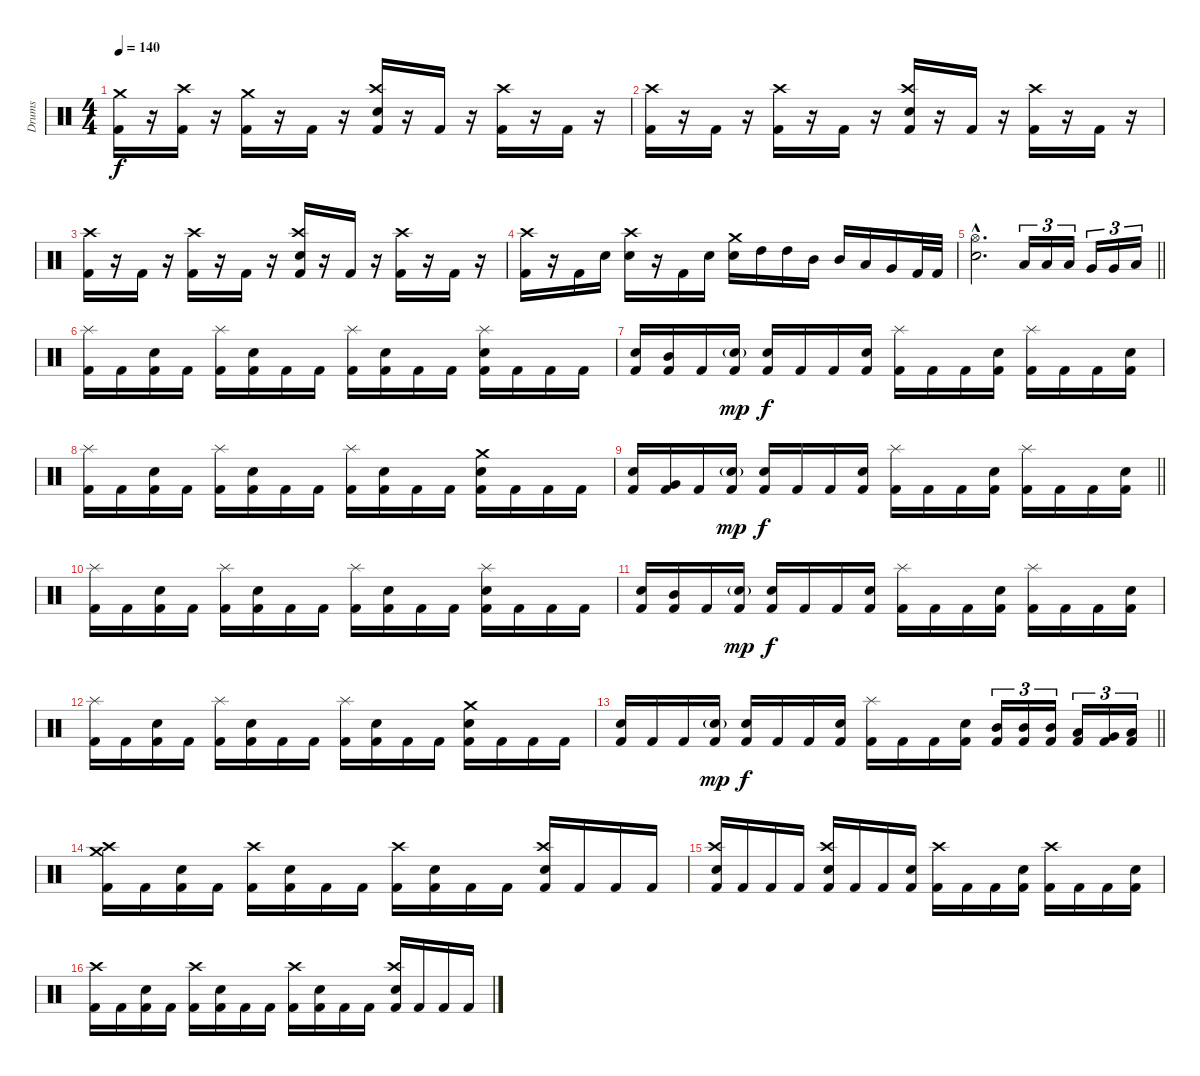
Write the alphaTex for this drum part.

\track ("Drums" "Drums") {instrument percussion}
\staff {score}
\articulation defaults
\ts (4 4)
\tempo 140
\clef neutral
\ks c
("Crash medium (hit)" "Kick (hit) 2").16{dy f} r.16 ("Crash high (hit)" "Kick (hit) 2").16 r.16 ("Crash medium (hit)" "Kick (hit) 2").16 r.16 "Kick (hit) 2".16 r.16 ("Crash high (hit)" "Electric Snare (hit)" "Kick (hit) 2").16 r.16 "Kick (hit) 2".16 r.16 ("Crash high (hit)" "Kick (hit) 2").16 r.16 "Kick (hit) 2".16 r.16 |
("Crash high (hit)" "Kick (hit) 2").16 r.16 "Kick (hit) 2".16 r.16 ("Crash high (hit)" "Kick (hit) 2").16 r.16 "Kick (hit) 2".16 r.16 ("Crash high (hit)" "Electric Snare (hit)" "Kick (hit) 2").16 r.16 "Kick (hit) 2".16 r.16 ("Crash high (hit)" "Kick (hit) 2").16 r.16 "Kick (hit) 2".16 r.16 |
("Crash high (hit)" "Kick (hit) 2").16 r.16 "Kick (hit) 2".16 r.16 ("Crash high (hit)" "Kick (hit) 2").16 r.16 "Kick (hit) 2".16 r.16 ("Crash high (hit)" "Electric Snare (hit)" "Kick (hit) 2").16 r.16 "Kick (hit) 2".16 r.16 ("Crash high (hit)" "Kick (hit) 2").16 r.16 "Kick (hit) 2".16 r.16 |
("Crash high (hit)" "Kick (hit) 2").16 r.16 "Kick (hit) 2".16 "Electric Snare (hit)".16 ("Crash high (hit)" "Electric Snare (hit)").16 r.16 "Kick (hit) 2".16 "Electric Snare (hit)".16 ("Crash medium (hit)" "Electric Snare (hit)").16 "High Tom (hit)".16 "High Tom (hit)".16 "Mid Tom (hit)".16 "Mid Tom (hit)".16 "Low Tom (hit)".16 "Very Low Tom (hit)".16 "Kick (hit) 2".32 "Kick (hit) 2".32 |
\barLineRight lightlight
("Hi-Hat (open)"{hac} "Electric Snare (hit)"{hac}).2{d} "Low Tom (hit)".16{tu (3 2)} "Low Tom (hit)".16{tu (3 2)} "Low Tom (hit)".16{tu (3 2)} "Very Low Tom (hit)".16{tu (3 2)} "Very Low Tom (hit)".16{tu (3 2)} "Low Floor Tom (hit)".16{tu (3 2)} |
\section ("" "")
("Splash (hit)" "Kick (hit) 2").16 "Kick (hit) 2".16 ("Electric Snare (hit)" "Kick (hit) 2").16 "Kick (hit) 2".16 ("Splash (hit)" "Kick (hit) 2").16 ("Electric Snare (hit)" "Kick (hit) 2").16 "Kick (hit) 2".16 "Kick (hit) 2".16 ("Splash (hit)" "Kick (hit) 2").16 ("Electric Snare (hit)" "Kick (hit) 2").16 "Kick (hit) 2".16 "Kick (hit) 2".16 ("Splash (hit)" "Electric Snare (hit)" "Kick (hit) 2").16 "Kick (hit) 2".16 "Kick (hit) 2".16 "Kick (hit) 2".16 |
("Electric Snare (hit)" "Kick (hit) 2").16 ("Mid Tom (hit)" "Kick (hit) 2").16 "Kick (hit) 2".16 ("Electric Snare (hit)"{g} "Kick (hit) 2").16{dy mp} ("Electric Snare (hit)" "Kick (hit) 2").16{dy f} "Kick (hit) 2".16 "Kick (hit) 2".16 ("Electric Snare (hit)" "Kick (hit) 2").16 ("Splash (hit)" "Kick (hit) 2").16 "Kick (hit) 2".16 "Kick (hit) 2".16 ("Electric Snare (hit)" "Kick (hit) 2").16 ("Splash (hit)" "Kick (hit) 2").16 "Kick (hit) 2".16 "Kick (hit) 2".16 ("Electric Snare (hit)" "Kick (hit) 2").16 |
("Splash (hit)" "Kick (hit) 2").16 "Kick (hit) 2".16 ("Electric Snare (hit)" "Kick (hit) 2").16 "Kick (hit) 2".16 ("Splash (hit)" "Kick (hit) 2").16 ("Electric Snare (hit)" "Kick (hit) 2").16 "Kick (hit) 2".16 "Kick (hit) 2".16 ("Splash (hit)" "Kick (hit) 2").16 ("Electric Snare (hit)" "Kick (hit) 2").16 "Kick (hit) 2".16 "Kick (hit) 2".16 ("Crash medium (hit)" "Electric Snare (hit)" "Kick (hit) 2").16 "Kick (hit) 2".16 "Kick (hit) 2".16 "Kick (hit) 2".16 |
\barLineRight lightlight
("Electric Snare (hit)" "Kick (hit) 2").16 ("Very Low Tom (hit)" "Kick (hit) 2").16 "Kick (hit) 2".16 ("Electric Snare (hit)"{g} "Kick (hit) 2").16{dy mp} ("Electric Snare (hit)" "Kick (hit) 2").16{dy f} "Kick (hit) 2".16 "Kick (hit) 2".16 ("Electric Snare (hit)" "Kick (hit) 2").16 ("Splash (hit)" "Kick (hit) 2").16 "Kick (hit) 2".16 "Kick (hit) 2".16 ("Electric Snare (hit)" "Kick (hit) 2").16 ("Splash (hit)" "Kick (hit) 2").16 "Kick (hit) 2".16 "Kick (hit) 2".16 ("Electric Snare (hit)" "Kick (hit) 2").16 |
("Splash (hit)" "Kick (hit) 2").16 "Kick (hit) 2".16 ("Electric Snare (hit)" "Kick (hit) 2").16 "Kick (hit) 2".16 ("Splash (hit)" "Kick (hit) 2").16 ("Electric Snare (hit)" "Kick (hit) 2").16 "Kick (hit) 2".16 "Kick (hit) 2".16 ("Splash (hit)" "Kick (hit) 2").16 ("Electric Snare (hit)" "Kick (hit) 2").16 "Kick (hit) 2".16 "Kick (hit) 2".16 ("Splash (hit)" "Electric Snare (hit)" "Kick (hit) 2").16 "Kick (hit) 2".16 "Kick (hit) 2".16 "Kick (hit) 2".16 |
("Electric Snare (hit)" "Kick (hit) 2").16 ("Mid Tom (hit)" "Kick (hit) 2").16 "Kick (hit) 2".16 ("Electric Snare (hit)"{g} "Kick (hit) 2").16{dy mp} ("Electric Snare (hit)" "Kick (hit) 2").16{dy f} "Kick (hit) 2".16 "Kick (hit) 2".16 ("Electric Snare (hit)" "Kick (hit) 2").16 ("Splash (hit)" "Kick (hit) 2").16 "Kick (hit) 2".16 "Kick (hit) 2".16 ("Electric Snare (hit)" "Kick (hit) 2").16 ("Splash (hit)" "Kick (hit) 2").16 "Kick (hit) 2".16 "Kick (hit) 2".16 ("Electric Snare (hit)" "Kick (hit) 2").16 |
("Splash (hit)" "Kick (hit) 2").16 "Kick (hit) 2".16 ("Electric Snare (hit)" "Kick (hit) 2").16 "Kick (hit) 2".16 ("Splash (hit)" "Kick (hit) 2").16 ("Electric Snare (hit)" "Kick (hit) 2").16 "Kick (hit) 2".16 "Kick (hit) 2".16 ("Splash (hit)" "Kick (hit) 2").16 ("Electric Snare (hit)" "Kick (hit) 2").16 "Kick (hit) 2".16 "Kick (hit) 2".16 ("Crash medium (hit)" "Electric Snare (hit)" "Kick (hit) 2").16 "Kick (hit) 2".16 "Kick (hit) 2".16 "Kick (hit) 2".16 |
\barLineRight lightlight
("Electric Snare (hit)" "Kick (hit) 2").16 "Kick (hit) 2".16 "Kick (hit) 2".16 ("Electric Snare (hit)"{g} "Kick (hit) 2").16{dy mp} ("Electric Snare (hit)" "Kick (hit) 2").16{dy f} "Kick (hit) 2".16 "Kick (hit) 2".16 ("Electric Snare (hit)" "Kick (hit) 2").16 ("Splash (hit)" "Kick (hit) 2").16 "Kick (hit) 2".16 "Kick (hit) 2".16 ("Electric Snare (hit)" "Kick (hit) 2").16 ("Mid Tom (hit)" "Kick (hit) 2").16{tu (3 2)} ("Mid Tom (hit)" "Kick (hit) 2").16{tu (3 2)} ("Mid Tom (hit)" "Kick (hit) 2").16{tu (3 2)} ("Low Tom (hit)" "Kick (hit) 2").16{tu (3 2)} ("Very Low Tom (hit)" "Kick (hit) 2").16{tu (3 2)} ("Low Floor Tom (hit)" "Kick (hit) 2").16{tu (3 2)} |
\section ("" "")
("Crash medium (hit)" "Crash high (hit)" "Kick (hit) 2").16 "Kick (hit) 2".16 ("Electric Snare (hit)" "Kick (hit) 2").16 "Kick (hit) 2".16 ("Crash high (hit)" "Kick (hit) 2").16 ("Electric Snare (hit)" "Kick (hit) 2").16 "Kick (hit) 2".16 "Kick (hit) 2".16 ("Crash high (hit)" "Kick (hit) 2").16 ("Electric Snare (hit)" "Kick (hit) 2").16 "Kick (hit) 2".16 "Kick (hit) 2".16 ("Crash high (hit)" "Electric Snare (hit)" "Kick (hit) 2").16 "Kick (hit) 2".16 "Kick (hit) 2".16 "Kick (hit) 2".16 |
("Crash high (hit)" "Electric Snare (hit)" "Kick (hit) 2").16 "Kick (hit) 2".16 "Kick (hit) 2".16 "Kick (hit) 2".16 ("Crash high (hit)" "Electric Snare (hit)" "Kick (hit) 2").16 "Kick (hit) 2".16 "Kick (hit) 2".16 ("Electric Snare (hit)" "Kick (hit) 2").16 ("Crash high (hit)" "Kick (hit) 2").16 "Kick (hit) 2".16 "Kick (hit) 2".16 ("Electric Snare (hit)" "Kick (hit) 2").16 ("Crash high (hit)" "Kick (hit) 2").16 "Kick (hit) 2".16 "Kick (hit) 2".16 ("Electric Snare (hit)" "Kick (hit) 2").16 |
("Crash high (hit)" "Kick (hit) 2").16 "Kick (hit) 2".16 ("Electric Snare (hit)" "Kick (hit) 2").16 "Kick (hit) 2".16 ("Crash high (hit)" "Kick (hit) 2").16 ("Electric Snare (hit)" "Kick (hit) 2").16 "Kick (hit) 2".16 "Kick (hit) 2".16 ("Crash high (hit)" "Kick (hit) 2").16 ("Electric Snare (hit)" "Kick (hit) 2").16 "Kick (hit) 2".16 "Kick (hit) 2".16 ("Crash high (hit)" "Electric Snare (hit)" "Kick (hit) 2").16 "Kick (hit) 2".16 "Kick (hit) 2".16 "Kick (hit) 2".16
